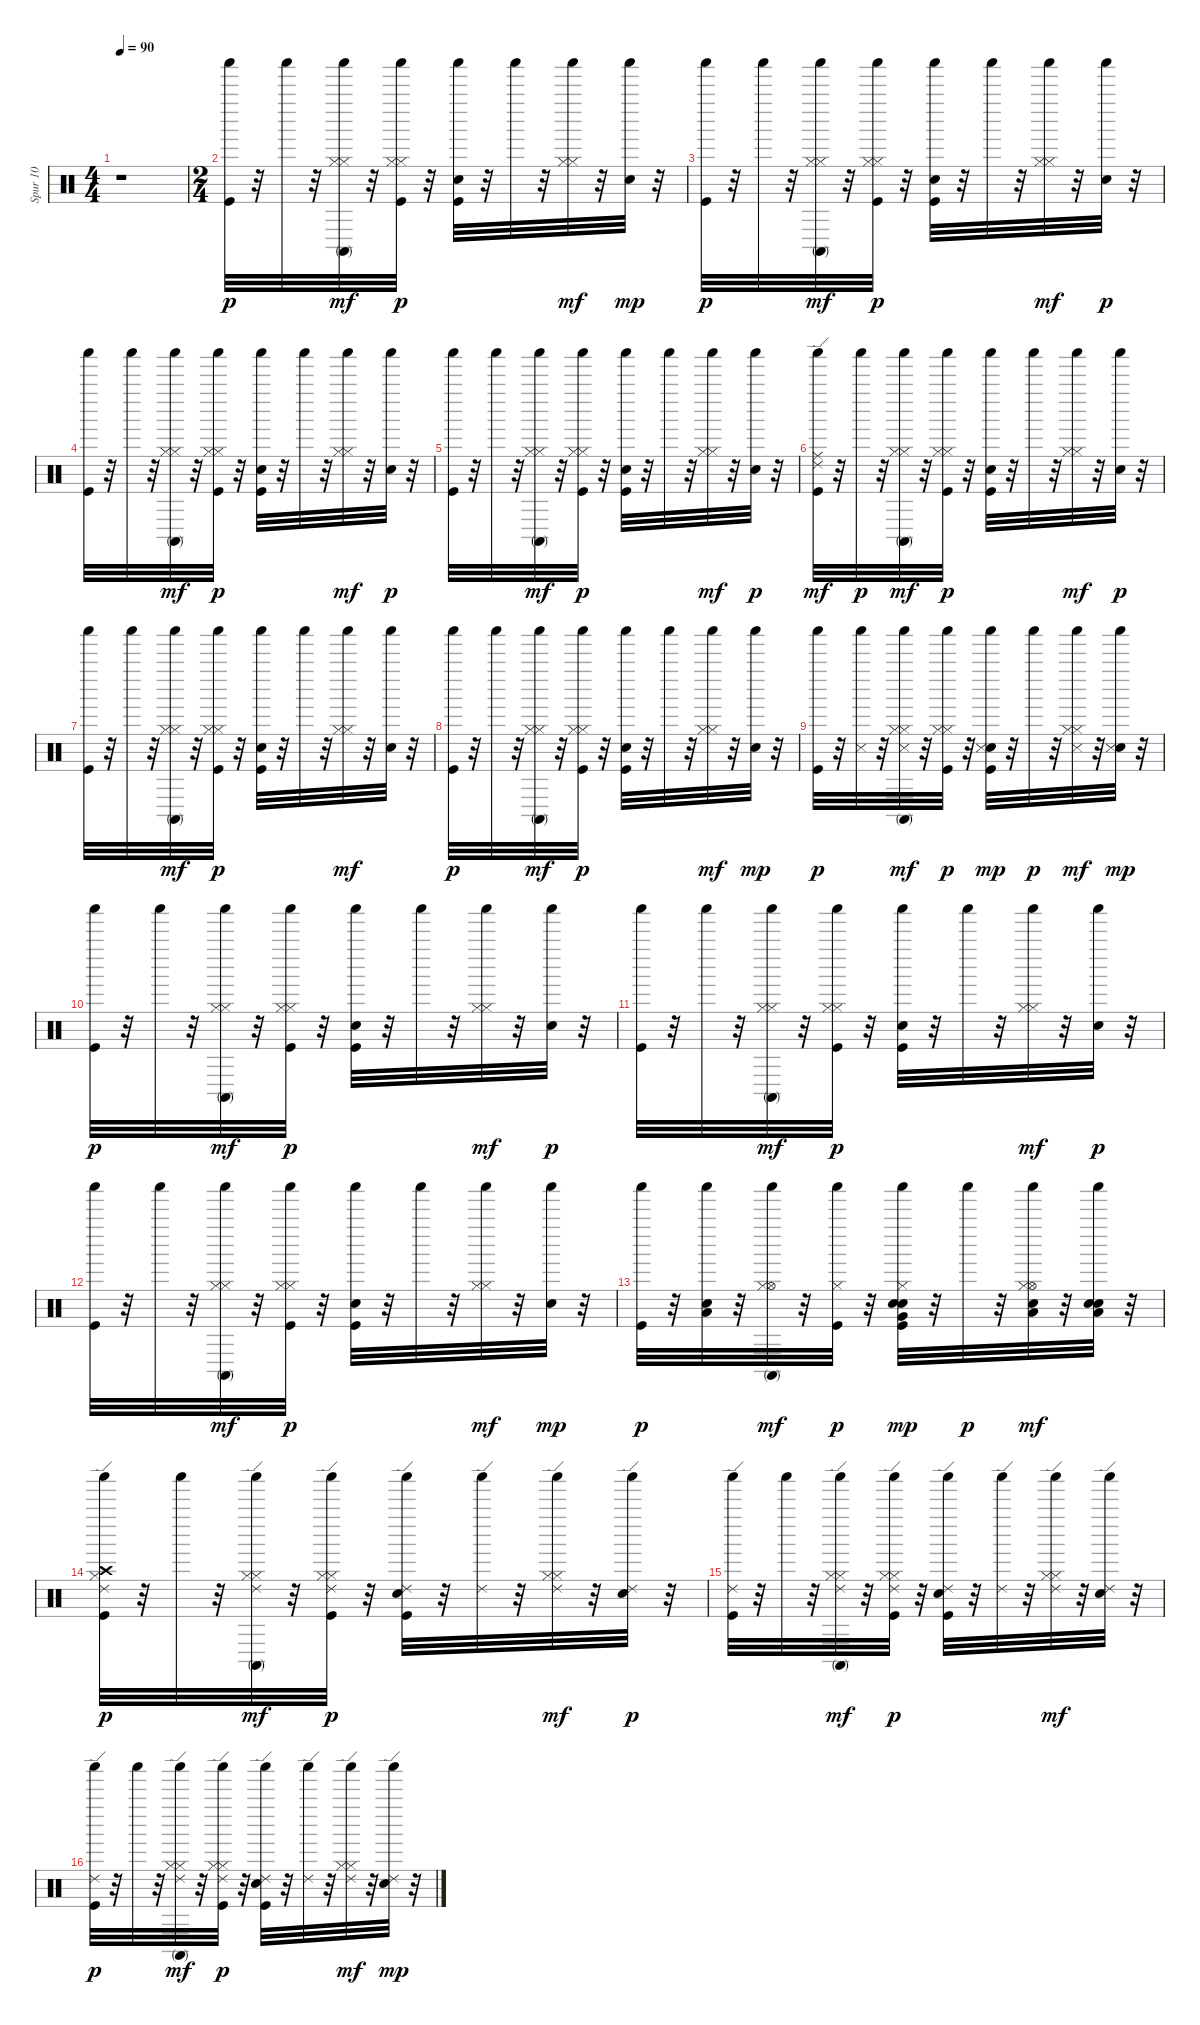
\track ("Spur 10" "Spur 10") {instrument percussion}
\staff {score}
\articulation defaults
\ts (4 4)
\tempo 90
\clef neutral
\ks c
r.1{dy p} |
\ts (2 4)
("Shaker (hit)" "Kick (hit)").32 r.32 "Shaker (hit)".32 r.32 ("Shaker (hit)" "Hi-Hat (closed)" "Conga high (mute)" "Hi-Hat (closed)").32{dy mf} r.32 ("Kick (hit)" "Shaker (hit)" "Hi-Hat (closed)" "Hi-Hat (closed)").32{dy p} r.32 ("Shaker (hit)" "Snare (hit) 2" "Kick (hit)").32 r.32 "Shaker (hit)".32 r.32 ("Hi-Hat (closed)" "Shaker (hit)" "Hi-Hat (closed)").32{dy mf} r.32 ("Shaker (hit)" "Electric Snare (hit)").32{dy mp} r.32 |
("Shaker (hit)" "Kick (hit)").32{dy p} r.32 "Shaker (hit)".32 r.32 ("Hi-Hat (closed)" "Shaker (hit)" "Conga high (mute)" "Hi-Hat (closed)").32{dy mf} r.32 ("Hi-Hat (closed)" "Kick (hit)" "Shaker (hit)" "Hi-Hat (closed)").32{dy p} r.32 ("Shaker (hit)" "Snare (hit) 2" "Kick (hit)").32 r.32 "Shaker (hit)".32 r.32 ("Shaker (hit)" "Hi-Hat (closed)" "Hi-Hat (closed)").32{dy mf} r.32 ("Electric Snare (hit)" "Shaker (hit)").32{dy p} r.32 |
("Shaker (hit)" "Kick (hit)").32 r.32 "Shaker (hit)".32 r.32 ("Hi-Hat (closed)" "Shaker (hit)" "Conga high (mute)" "Hi-Hat (closed)").32{dy mf} r.32 ("Kick (hit)" "Hi-Hat (closed)" "Shaker (hit)" "Hi-Hat (closed)").32{dy p} r.32 ("Snare (hit) 2" "Shaker (hit)" "Kick (hit)").32 r.32 "Shaker (hit)".32 r.32 ("Shaker (hit)" "Hi-Hat (closed)" "Hi-Hat (closed)").32{dy mf} r.32 ("Electric Snare (hit)" "Shaker (hit)").32{dy p} r.32 |
("Shaker (hit)" "Kick (hit)").32 r.32 "Shaker (hit)".32 r.32 ("Conga high (mute)" "Shaker (hit)" "Hi-Hat (closed)" "Hi-Hat (closed)").32{dy mf} r.32 ("Hi-Hat (closed)" "Kick (hit)" "Shaker (hit)" "Hi-Hat (closed)").32{dy p} r.32 ("Snare (hit) 2" "Shaker (hit)" "Kick (hit)").32 r.32 "Shaker (hit)".32 r.32 ("Hi-Hat (closed)" "Shaker (hit)" "Hi-Hat (closed)").32{dy mf} r.32 ("Electric Snare (hit)" "Shaker (hit)").32{dy p} r.32 |
("Shaker (hit)" "Ride (edge) 2" "Ride (middle)" "Kick (hit)").32{dy mf} r.32 "Shaker (hit)".32{dy p} r.32 ("Shaker (hit)" "Hi-Hat (closed)" "Conga high (mute)" "Hi-Hat (closed)").32{dy mf} r.32 ("Hi-Hat (closed)" "Shaker (hit)" "Kick (hit)" "Hi-Hat (closed)").32{dy p} r.32 ("Snare (hit) 2" "Shaker (hit)" "Kick (hit)").32 r.32 "Shaker (hit)".32 r.32 ("Shaker (hit)" "Hi-Hat (closed)" "Hi-Hat (closed)").32{dy mf} r.32 ("Electric Snare (hit)" "Shaker (hit)").32{dy p} r.32 |
("Shaker (hit)" "Kick (hit)").32 r.32 "Shaker (hit)".32 r.32 ("Shaker (hit)" "Hi-Hat (closed)" "Conga high (mute)" "Hi-Hat (closed)").32{dy mf} r.32 ("Kick (hit)" "Hi-Hat (closed)" "Shaker (hit)" "Hi-Hat (closed)").32{dy p} r.32 ("Shaker (hit)" "Snare (hit) 2" "Kick (hit)").32 r.32 "Shaker (hit)".32 r.32 ("Hi-Hat (closed)" "Shaker (hit)" "Hi-Hat (closed)").32{dy mf} r.32 ("Shaker (hit)" "Electric Snare (hit)").32 r.32 |
("Shaker (hit)" "Kick (hit)").32{dy p} r.32 "Shaker (hit)".32 r.32 ("Conga high (mute)" "Shaker (hit)" "Hi-Hat (closed)" "Hi-Hat (closed)").32{dy mf} r.32 ("Shaker (hit)" "Kick (hit)" "Hi-Hat (closed)" "Hi-Hat (closed)").32{dy p} r.32 ("Snare (hit) 2" "Shaker (hit)" "Kick (hit)").32 r.32 "Shaker (hit)".32 r.32 ("Hi-Hat (closed)" "Shaker (hit)" "Hi-Hat (closed)").32{dy mf} r.32 ("Shaker (hit)" "Electric Snare (hit)").32{dy mp} r.32 |
("Shaker (hit)" "Kick (hit)").32{dy p} r.32 ("Shaker (hit)" "Snare (side stick) 3").32 r.32 ("Hi-Hat (closed)" "Shaker (hit)" "Conga high (mute)" "Hi-Hat (closed)" "Snare (side stick) 3").32{dy mf} r.32 ("Shaker (hit)" "Kick (hit)" "Hi-Hat (closed)" "Hi-Hat (closed)").32{dy p} r.32 ("Shaker (hit)" "Snare (hit) 2" "Snare (side stick) 3" "Kick (hit)").32{dy mp} r.32 "Shaker (hit)".32{dy p} r.32 ("Hi-Hat (closed)" "Shaker (hit)" "Snare (side stick) 3" "Hi-Hat (closed)").32{dy mf} r.32 ("Shaker (hit)" "Electric Snare (hit)" "Snare (side stick) 3").32{dy mp} r.32 |
("Shaker (hit)" "Kick (hit)").32{dy p} r.32 "Shaker (hit)".32 r.32 ("Shaker (hit)" "Hi-Hat (closed)" "Conga high (mute)" "Hi-Hat (closed)").32{dy mf} r.32 ("Kick (hit)" "Shaker (hit)" "Hi-Hat (closed)" "Hi-Hat (closed)").32{dy p} r.32 ("Snare (hit) 2" "Shaker (hit)" "Kick (hit)").32 r.32 "Shaker (hit)".32 r.32 ("Hi-Hat (closed)" "Shaker (hit)" "Hi-Hat (closed)").32{dy mf} r.32 ("Electric Snare (hit)" "Shaker (hit)").32{dy p} r.32 |
("Shaker (hit)" "Kick (hit)").32 r.32 "Shaker (hit)".32 r.32 ("Conga high (mute)" "Shaker (hit)" "Hi-Hat (closed)" "Hi-Hat (closed)").32{dy mf} r.32 ("Kick (hit)" "Hi-Hat (closed)" "Shaker (hit)" "Hi-Hat (closed)").32{dy p} r.32 ("Snare (hit) 2" "Shaker (hit)" "Kick (hit)").32 r.32 "Shaker (hit)".32 r.32 ("Shaker (hit)" "Hi-Hat (closed)" "Hi-Hat (closed)").32{dy mf} r.32 ("Electric Snare (hit)" "Shaker (hit)").32{dy p} r.32 |
("Shaker (hit)" "Kick (hit)").32 r.32 "Shaker (hit)".32 r.32 ("Shaker (hit)" "Conga high (mute)" "Hi-Hat (closed)" "Hi-Hat (closed)").32{dy mf} r.32 ("Kick (hit)" "Hi-Hat (closed)" "Shaker (hit)" "Hi-Hat (closed)").32{dy p} r.32 ("Shaker (hit)" "Snare (hit) 2" "Kick (hit)").32 r.32 "Shaker (hit)".32 r.32 ("Hi-Hat (closed)" "Shaker (hit)" "Hi-Hat (closed)").32{dy mf} r.32 ("Shaker (hit)" "Electric Snare (hit)").32{dy mp} r.32 |
("Shaker (hit)" "Kick (hit)").32{dy p} r.32 ("Low Tom (hit)" "Shaker (hit)" "Electric Snare (hit)").32 r.32 ("Shaker (hit)" "Hi-Hat (open)" "Conga high (mute)" "Hi-Hat (closed)").32{dy mf} r.32 ("Kick (hit)" "Shaker (hit)" "Hi-Hat (closed)").32{dy p} r.32 ("Very Low Tom (hit)" "Snare (hit) 2" "Shaker (hit)" "Hi-Hat (closed)" "Kick (hit)" "Electric Snare (hit)").32{dy mp} r.32 "Shaker (hit)".32{dy p} r.32 ("Low Floor Tom (hit)" "Shaker (hit)" "Hi-Hat (open)" "Snare (hit) 2" "Hi-Hat (closed)").32{dy mf} r.32 ("Low Floor Tom (hit)" "Snare (hit) 2" "Shaker (hit)" "Electric Snare (hit)").32 r.32 |
("Ride (edge) 2" "Hi-Hat (closed)" "Shaker (hit)" "Kick (hit)" "Crash high (hit)").32{dy p} r.32 "Shaker (hit)".32 r.32 ("Ride (edge) 2" "Shaker (hit)" "Hi-Hat (closed)" "Conga high (mute)" "Hi-Hat (closed)").32{dy mf} r.32 ("Ride (edge) 2" "Hi-Hat (closed)" "Shaker (hit)" "Kick (hit)" "Hi-Hat (closed)").32{dy p} r.32 ("Ride (edge) 2" "Snare (hit) 2" "Shaker (hit)" "Kick (hit)").32 r.32 ("Ride (edge) 2" "Shaker (hit)").32 r.32 ("Ride (edge) 2" "Shaker (hit)" "Hi-Hat (closed)" "Hi-Hat (closed)").32{dy mf} r.32 ("Ride (edge) 2" "Electric Snare (hit)" "Shaker (hit)").32{dy p} r.32 |
("Ride (edge) 2" "Shaker (hit)" "Kick (hit)").32 r.32 "Shaker (hit)".32 r.32 ("Ride (edge) 2" "Shaker (hit)" "Hi-Hat (closed)" "Conga high (mute)" "Hi-Hat (closed)").32{dy mf} r.32 ("Ride (edge) 2" "Kick (hit)" "Hi-Hat (closed)" "Shaker (hit)" "Hi-Hat (closed)").32{dy p} r.32 ("Ride (edge) 2" "Shaker (hit)" "Snare (hit) 2" "Kick (hit)").32 r.32 ("Ride (edge) 2" "Shaker (hit)").32 r.32 ("Ride (edge) 2" "Hi-Hat (closed)" "Shaker (hit)" "Hi-Hat (closed)").32{dy mf} r.32 ("Ride (edge) 2" "Shaker (hit)" "Electric Snare (hit)").32 r.32 |
("Ride (edge) 2" "Shaker (hit)" "Kick (hit)").32{dy p} r.32 "Shaker (hit)".32 r.32 ("Ride (edge) 2" "Conga high (mute)" "Shaker (hit)" "Hi-Hat (closed)" "Hi-Hat (closed)").32{dy mf} r.32 ("Ride (edge) 2" "Shaker (hit)" "Kick (hit)" "Hi-Hat (closed)" "Hi-Hat (closed)").32{dy p} r.32 ("Ride (edge) 2" "Snare (hit) 2" "Shaker (hit)" "Kick (hit)").32 r.32 ("Ride (edge) 2" "Shaker (hit)").32 r.32 ("Ride (edge) 2" "Hi-Hat (closed)" "Shaker (hit)" "Hi-Hat (closed)").32{dy mf} r.32 ("Ride (edge) 2" "Shaker (hit)" "Electric Snare (hit)").32{dy mp} r.32
